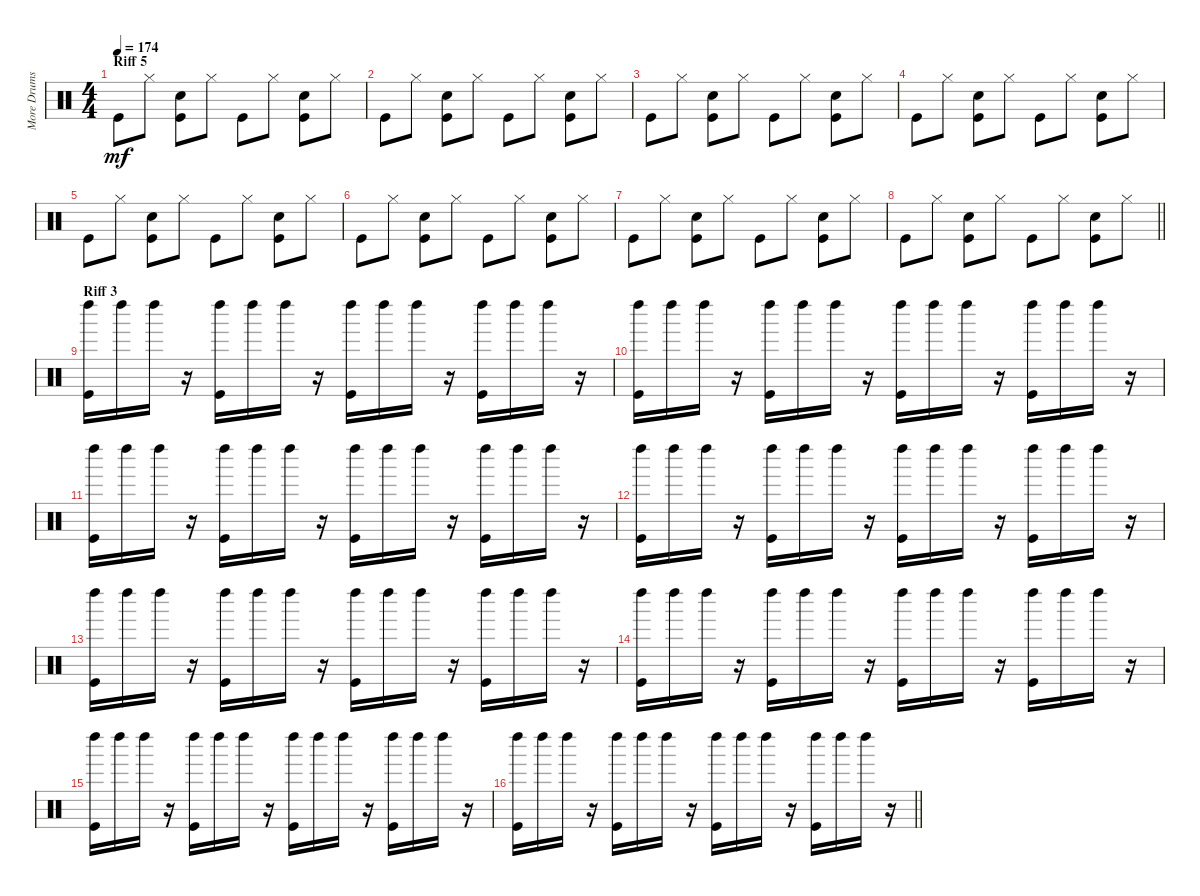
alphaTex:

\track ("More Drums" "More Drums") {instrument percussion}
\staff {score}
\articulation defaults
\ts (4 4)
\section ("" "Riff 5")
\tempo 174
\clef neutral
\ks c "Kick (hit)".8{dy mf} "Hi-Hat (closed)".8
("Kick (hit)" "Electric Snare (hit)").8 "Hi-Hat (closed)".8 "Kick (hit)".8 "Hi-Hat (closed)".8 ("Kick (hit)" "Electric Snare (hit)").8 "Hi-Hat (closed)".8 |
"Kick (hit)".8 "Hi-Hat (closed)".8 ("Kick (hit)" "Electric Snare (hit)").8 "Hi-Hat (closed)".8 "Kick (hit)".8 "Hi-Hat (closed)".8 ("Kick (hit)" "Electric Snare (hit)").8 "Hi-Hat (closed)".8 |
"Kick (hit)".8 "Hi-Hat (closed)".8 ("Kick (hit)" "Electric Snare (hit)").8 "Hi-Hat (closed)".8 "Kick (hit)".8 "Hi-Hat (closed)".8 ("Kick (hit)" "Electric Snare (hit)").8 "Hi-Hat (closed)".8 |
"Kick (hit)".8 "Hi-Hat (closed)".8 ("Kick (hit)" "Electric Snare (hit)").8 "Hi-Hat (closed)".8 "Kick (hit)".8 "Hi-Hat (closed)".8 ("Kick (hit)" "Electric Snare (hit)").8 "Hi-Hat (closed)".8 |
"Kick (hit)".8 "Hi-Hat (closed)".8 ("Kick (hit)" "Electric Snare (hit)").8 "Hi-Hat (closed)".8 "Kick (hit)".8 "Hi-Hat (closed)".8 ("Kick (hit)" "Electric Snare (hit)").8 "Hi-Hat (closed)".8 |
"Kick (hit)".8 "Hi-Hat (closed)".8 ("Kick (hit)" "Electric Snare (hit)").8 "Hi-Hat (closed)".8 "Kick (hit)".8 "Hi-Hat (closed)".8 ("Kick (hit)" "Electric Snare (hit)").8 "Hi-Hat (closed)".8 |
"Kick (hit)".8 "Hi-Hat (closed)".8 ("Kick (hit)" "Electric Snare (hit)").8 "Hi-Hat (closed)".8 "Kick (hit)".8 "Hi-Hat (closed)".8 ("Kick (hit)" "Electric Snare (hit)").8 "Hi-Hat (closed)".8 |
\barLineRight lightlight "Kick (hit)".8 "Hi-Hat (closed)".8
("Kick (hit)" "Electric Snare (hit)").8 "Hi-Hat (closed)".8 "Kick (hit)".8 "Hi-Hat (closed)".8 ("Kick (hit)" "Electric Snare (hit)").8 "Hi-Hat (closed)".8 |
\section ("" "Riff 3")
("Kick (hit)" "Left Maraca (hit)").16 "Left Maraca (hit)".16 "Left Maraca (hit)".16 r.16 ("Kick (hit)" "Left Maraca (hit)").16 "Left Maraca (hit)".16 "Left Maraca (hit)".16 r.16 ("Kick (hit)" "Left Maraca (hit)").16 "Left Maraca (hit)".16 "Left Maraca (hit)".16 r.16 ("Kick (hit)" "Left Maraca (hit)").16 "Left Maraca (hit)".16 "Left Maraca (hit)".16 r.16 |
("Kick (hit)" "Left Maraca (hit)").16 "Left Maraca (hit)".16 "Left Maraca (hit)".16 r.16 ("Kick (hit)" "Left Maraca (hit)").16 "Left Maraca (hit)".16 "Left Maraca (hit)".16 r.16 ("Kick (hit)" "Left Maraca (hit)").16 "Left Maraca (hit)".16 "Left Maraca (hit)".16 r.16 ("Kick (hit)" "Left Maraca (hit)").16 "Left Maraca (hit)".16 "Left Maraca (hit)".16 r.16 |
("Kick (hit)" "Left Maraca (hit)").16 "Left Maraca (hit)".16 "Left Maraca (hit)".16 r.16 ("Kick (hit)" "Left Maraca (hit)").16 "Left Maraca (hit)".16 "Left Maraca (hit)".16 r.16 ("Kick (hit)" "Left Maraca (hit)").16 "Left Maraca (hit)".16 "Left Maraca (hit)".16 r.16 ("Kick (hit)" "Left Maraca (hit)").16 "Left Maraca (hit)".16 "Left Maraca (hit)".16 r.16 |
("Kick (hit)" "Left Maraca (hit)").16 "Left Maraca (hit)".16 "Left Maraca (hit)".16 r.16 ("Kick (hit)" "Left Maraca (hit)").16 "Left Maraca (hit)".16 "Left Maraca (hit)".16 r.16 ("Kick (hit)" "Left Maraca (hit)").16 "Left Maraca (hit)".16 "Left Maraca (hit)".16 r.16 ("Kick (hit)" "Left Maraca (hit)").16 "Left Maraca (hit)".16 "Left Maraca (hit)".16 r.16 |
("Kick (hit)" "Left Maraca (hit)").16 "Left Maraca (hit)".16 "Left Maraca (hit)".16 r.16 ("Kick (hit)" "Left Maraca (hit)").16 "Left Maraca (hit)".16 "Left Maraca (hit)".16 r.16 ("Kick (hit)" "Left Maraca (hit)").16 "Left Maraca (hit)".16 "Left Maraca (hit)".16 r.16 ("Kick (hit)" "Left Maraca (hit)").16 "Left Maraca (hit)".16 "Left Maraca (hit)".16 r.16 |
("Kick (hit)" "Left Maraca (hit)").16 "Left Maraca (hit)".16 "Left Maraca (hit)".16 r.16 ("Kick (hit)" "Left Maraca (hit)").16 "Left Maraca (hit)".16 "Left Maraca (hit)".16 r.16 ("Kick (hit)" "Left Maraca (hit)").16 "Left Maraca (hit)".16 "Left Maraca (hit)".16 r.16 ("Kick (hit)" "Left Maraca (hit)").16 "Left Maraca (hit)".16 "Left Maraca (hit)".16 r.16 |
("Kick (hit)" "Left Maraca (hit)").16 "Left Maraca (hit)".16 "Left Maraca (hit)".16 r.16 ("Kick (hit)" "Left Maraca (hit)").16 "Left Maraca (hit)".16 "Left Maraca (hit)".16 r.16 ("Kick (hit)" "Left Maraca (hit)").16 "Left Maraca (hit)".16 "Left Maraca (hit)".16 r.16 ("Kick (hit)" "Left Maraca (hit)").16 "Left Maraca (hit)".16 "Left Maraca (hit)".16 r.16 |
\barLineRight lightlight
("Kick (hit)" "Left Maraca (hit)").16 "Left Maraca (hit)".16 "Left Maraca (hit)".16 r.16 ("Kick (hit)" "Left Maraca (hit)").16 "Left Maraca (hit)".16 "Left Maraca (hit)".16 r.16 ("Kick (hit)" "Left Maraca (hit)").16 "Left Maraca (hit)".16 "Left Maraca (hit)".16 r.16 ("Kick (hit)" "Left Maraca (hit)").16 "Left Maraca (hit)".16 "Left Maraca (hit)".16 r.16
